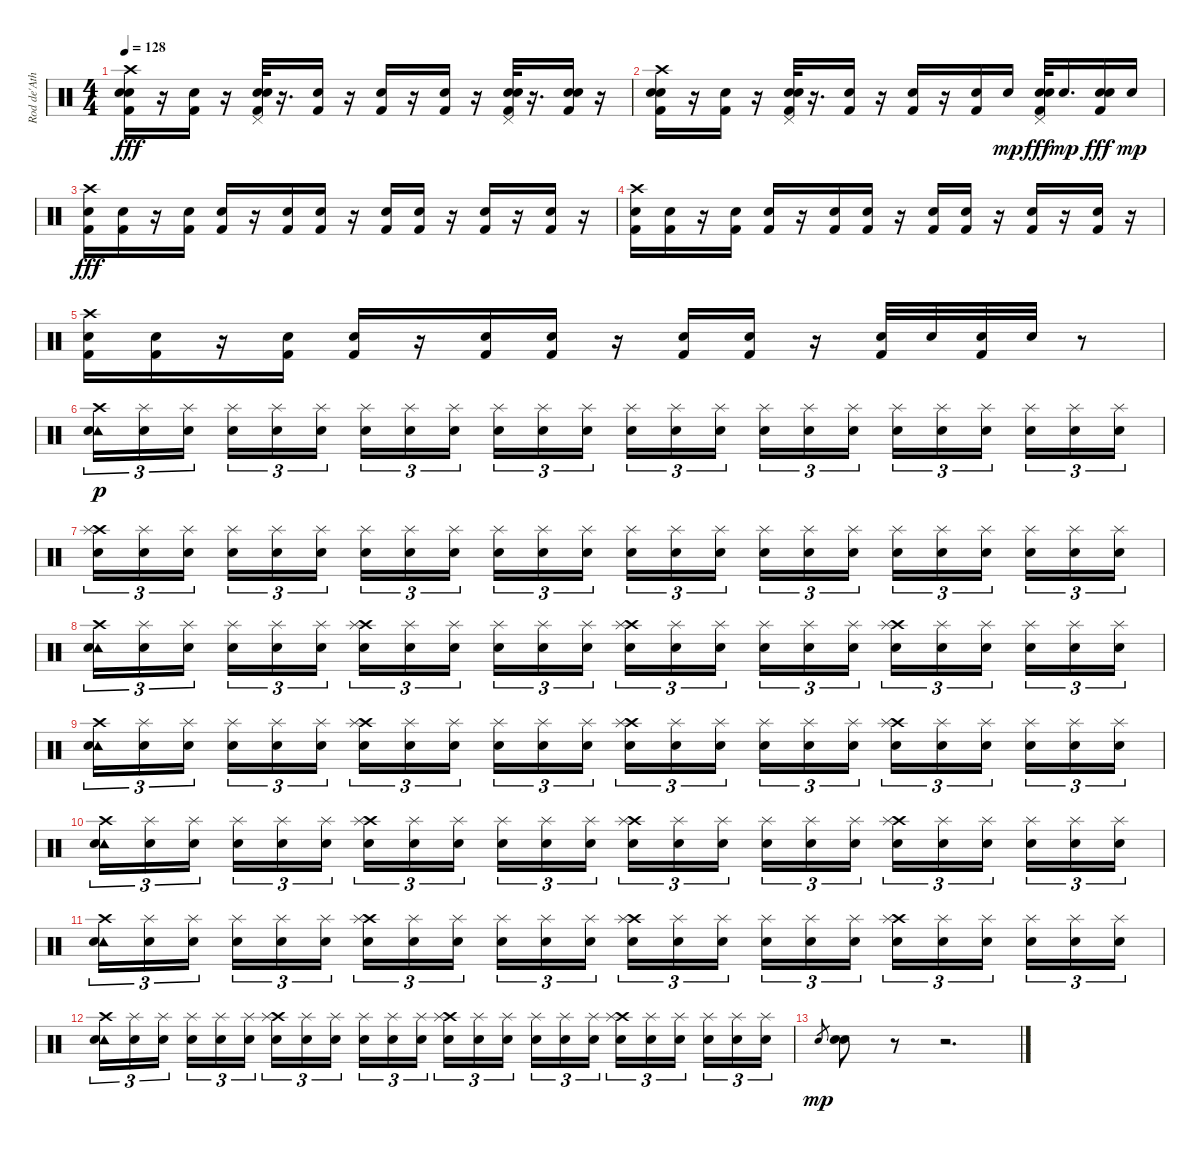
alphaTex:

\track ("Rod de'Ath" "Rod de'Ath") {instrument percussion}
\staff {score}
\articulation defaults
\ts (4 4)
\tempo 128
\clef neutral
\ks c
("Crash high (hit)" "Snare (hit) 2" "Snare (hit) 2" "Kick (hit) 2").16{dy fff} r.16 ("Snare (hit) 2" "Kick (hit) 2").16 r.16 ("Pedal Hi-Hat (hit)" "Electric Snare (hit)" "Electric Snare (hit)" "Kick (hit) 2").32 r.16{d} ("Snare (hit) 2" "Kick (hit) 2").16 r.16 ("Snare (hit) 2" "Kick (hit) 2").16 r.16 ("Snare (hit) 2" "Kick (hit) 2").16 r.16 ("Pedal Hi-Hat (hit)" "Electric Snare (hit)" "Electric Snare (hit)" "Kick (hit) 2").32 r.16{d} ("Snare (hit) 2" "Snare (hit) 2" "Kick (hit) 2").16 r.16 |
("Crash high (hit)" "Snare (hit) 2" "Snare (hit) 2" "Kick (hit) 2").16 r.16 ("Snare (hit) 2" "Kick (hit) 2").16 r.16 ("Pedal Hi-Hat (hit)" "Electric Snare (hit)" "Electric Snare (hit)" "Kick (hit) 2").32 r.16{d} ("Snare (hit) 2" "Kick (hit) 2").16 r.16 ("Snare (hit) 2" "Kick (hit) 2").16 r.16 ("Snare (hit) 2" "Kick (hit) 2").16 "Electric Snare (hit)".16{dy mp} ("Pedal Hi-Hat (hit)" "Electric Snare (hit)" "Electric Snare (hit)" "Kick (hit) 2").32{dy fff} "Electric Snare (hit)".16{d dy mp} ("Snare (hit) 2" "Snare (hit) 2" "Kick (hit) 2").16{dy fff} "Electric Snare (hit)".16{dy mp} |
("Crash high (hit)" "Snare (hit) 2" "Kick (hit) 2").16{dy fff} ("Electric Snare (hit)" "Kick (hit) 2").16 r.16 ("Electric Snare (hit)" "Kick (hit) 2").16 ("Electric Snare (hit)" "Kick (hit) 2").16 r.16 ("Electric Snare (hit)" "Kick (hit) 2").16 ("Electric Snare (hit)" "Kick (hit) 2").16 r.16 ("Electric Snare (hit)" "Kick (hit) 2").16 ("Snare (hit) 2" "Kick (hit) 2").16 r.16 ("Snare (hit) 2" "Kick (hit) 2").16 r.16 ("Snare (hit) 2" "Kick (hit) 2").16 r.16 |
("Crash high (hit)" "Snare (hit) 2" "Kick (hit) 2").16 ("Electric Snare (hit)" "Kick (hit) 2").16 r.16 ("Electric Snare (hit)" "Kick (hit) 2").16 ("Electric Snare (hit)" "Kick (hit) 2").16 r.16 ("Electric Snare (hit)" "Kick (hit) 2").16 ("Electric Snare (hit)" "Kick (hit) 2").16 r.16 ("Electric Snare (hit)" "Kick (hit) 2").16 ("Snare (hit) 2" "Kick (hit) 2").16 r.16 ("Snare (hit) 2" "Kick (hit) 2").16 r.16 ("Snare (hit) 2" "Kick (hit) 2").16 r.16 |
("Crash high (hit)" "Snare (hit) 2" "Kick (hit) 2").16 ("Electric Snare (hit)" "Kick (hit) 2").16 r.16 ("Electric Snare (hit)" "Kick (hit) 2").16 ("Electric Snare (hit)" "Kick (hit) 2").16 r.16 ("Electric Snare (hit)" "Kick (hit) 2").16 ("Electric Snare (hit)" "Kick (hit) 2").16 r.16 ("Electric Snare (hit)" "Kick (hit) 2").16 ("Snare (hit) 2" "Kick (hit) 2").16 r.16 ("Electric Snare (hit)" "Kick (hit) 2").32 "Electric Snare (hit)".32 ("Snare (hit) 2" "Kick (hit) 2").32 "Snare (hit) 2".32 r.8 |
("Crash high (hit)" "Tambourine (hit)" "Electric Snare (hit)").16{tu (3 2) dy p} ("Splash (hit)" "Electric Snare (hit)").16{tu (3 2)} ("Splash (hit)" "Electric Snare (hit)").16{tu (3 2)} ("Splash (hit)" "Electric Snare (hit)").16{tu (3 2)} ("Splash (hit)" "Electric Snare (hit)").16{tu (3 2)} ("Splash (hit)" "Electric Snare (hit)").16{tu (3 2)} ("Splash (hit)" "Electric Snare (hit)").16{tu (3 2)} ("Splash (hit)" "Electric Snare (hit)").16{tu (3 2)} ("Splash (hit)" "Electric Snare (hit)").16{tu (3 2)} ("Splash (hit)" "Electric Snare (hit)").16{tu (3 2)} ("Splash (hit)" "Electric Snare (hit)").16{tu (3 2)} ("Splash (hit)" "Electric Snare (hit)").16{tu (3 2)} ("Splash (hit)" "Electric Snare (hit)").16{tu (3 2)} ("Splash (hit)" "Electric Snare (hit)").16{tu (3 2)} ("Splash (hit)" "Electric Snare (hit)").16{tu (3 2)} ("Splash (hit)" "Electric Snare (hit)").16{tu (3 2)} ("Splash (hit)" "Electric Snare (hit)").16{tu (3 2)} ("Splash (hit)" "Electric Snare (hit)").16{tu (3 2)} ("Splash (hit)" "Electric Snare (hit)").16{tu (3 2)} ("Splash (hit)" "Electric Snare (hit)").16{tu (3 2)} ("Splash (hit)" "Electric Snare (hit)").16{tu (3 2)} ("Splash (hit)" "Electric Snare (hit)").16{tu (3 2)} ("Splash (hit)" "Electric Snare (hit)").16{tu (3 2)} ("Splash (hit)" "Electric Snare (hit)").16{tu (3 2)} |
("Crash high (hit)" "Splash (hit)" "Electric Snare (hit)").16{tu (3 2)} ("Splash (hit)" "Electric Snare (hit)").16{tu (3 2)} ("Splash (hit)" "Electric Snare (hit)").16{tu (3 2)} ("Splash (hit)" "Electric Snare (hit)").16{tu (3 2)} ("Splash (hit)" "Electric Snare (hit)").16{tu (3 2)} ("Splash (hit)" "Electric Snare (hit)").16{tu (3 2)} ("Splash (hit)" "Electric Snare (hit)").16{tu (3 2)} ("Splash (hit)" "Electric Snare (hit)").16{tu (3 2)} ("Splash (hit)" "Electric Snare (hit)").16{tu (3 2)} ("Splash (hit)" "Electric Snare (hit)").16{tu (3 2)} ("Splash (hit)" "Electric Snare (hit)").16{tu (3 2)} ("Splash (hit)" "Electric Snare (hit)").16{tu (3 2)} ("Splash (hit)" "Electric Snare (hit)").16{tu (3 2)} ("Splash (hit)" "Electric Snare (hit)").16{tu (3 2)} ("Splash (hit)" "Electric Snare (hit)").16{tu (3 2)} ("Splash (hit)" "Electric Snare (hit)").16{tu (3 2)} ("Splash (hit)" "Electric Snare (hit)").16{tu (3 2)} ("Splash (hit)" "Electric Snare (hit)").16{tu (3 2)} ("Splash (hit)" "Electric Snare (hit)").16{tu (3 2)} ("Splash (hit)" "Electric Snare (hit)").16{tu (3 2)} ("Splash (hit)" "Electric Snare (hit)").16{tu (3 2)} ("Splash (hit)" "Electric Snare (hit)").16{tu (3 2)} ("Splash (hit)" "Electric Snare (hit)").16{tu (3 2)} ("Splash (hit)" "Electric Snare (hit)").16{tu (3 2)} |
("Crash high (hit)" "Tambourine (hit)" "Electric Snare (hit)").16{tu (3 2)} ("Splash (hit)" "Electric Snare (hit)").16{tu (3 2)} ("Splash (hit)" "Electric Snare (hit)").16{tu (3 2)} ("Splash (hit)" "Electric Snare (hit)").16{tu (3 2)} ("Splash (hit)" "Electric Snare (hit)").16{tu (3 2)} ("Splash (hit)" "Electric Snare (hit)").16{tu (3 2)} ("Crash high (hit)" "Splash (hit)" "Electric Snare (hit)").16{tu (3 2)} ("Splash (hit)" "Electric Snare (hit)").16{tu (3 2)} ("Splash (hit)" "Electric Snare (hit)").16{tu (3 2)} ("Splash (hit)" "Electric Snare (hit)").16{tu (3 2)} ("Splash (hit)" "Electric Snare (hit)").16{tu (3 2)} ("Splash (hit)" "Electric Snare (hit)").16{tu (3 2)} ("Crash high (hit)" "Splash (hit)" "Electric Snare (hit)").16{tu (3 2)} ("Splash (hit)" "Electric Snare (hit)").16{tu (3 2)} ("Splash (hit)" "Electric Snare (hit)").16{tu (3 2)} ("Splash (hit)" "Electric Snare (hit)").16{tu (3 2)} ("Splash (hit)" "Electric Snare (hit)").16{tu (3 2)} ("Splash (hit)" "Electric Snare (hit)").16{tu (3 2)} ("Crash high (hit)" "Splash (hit)" "Electric Snare (hit)").16{tu (3 2)} ("Splash (hit)" "Electric Snare (hit)").16{tu (3 2)} ("Splash (hit)" "Electric Snare (hit)").16{tu (3 2)} ("Splash (hit)" "Electric Snare (hit)").16{tu (3 2)} ("Splash (hit)" "Electric Snare (hit)").16{tu (3 2)} ("Splash (hit)" "Electric Snare (hit)").16{tu (3 2)} |
("Crash high (hit)" "Tambourine (hit)" "Electric Snare (hit)").16{tu (3 2)} ("Splash (hit)" "Electric Snare (hit)").16{tu (3 2)} ("Splash (hit)" "Electric Snare (hit)").16{tu (3 2)} ("Splash (hit)" "Electric Snare (hit)").16{tu (3 2)} ("Splash (hit)" "Electric Snare (hit)").16{tu (3 2)} ("Splash (hit)" "Electric Snare (hit)").16{tu (3 2)} ("Crash high (hit)" "Splash (hit)" "Electric Snare (hit)").16{tu (3 2)} ("Splash (hit)" "Electric Snare (hit)").16{tu (3 2)} ("Splash (hit)" "Electric Snare (hit)").16{tu (3 2)} ("Splash (hit)" "Electric Snare (hit)").16{tu (3 2)} ("Splash (hit)" "Electric Snare (hit)").16{tu (3 2)} ("Splash (hit)" "Electric Snare (hit)").16{tu (3 2)} ("Crash high (hit)" "Splash (hit)" "Electric Snare (hit)").16{tu (3 2)} ("Splash (hit)" "Electric Snare (hit)").16{tu (3 2)} ("Splash (hit)" "Electric Snare (hit)").16{tu (3 2)} ("Splash (hit)" "Electric Snare (hit)").16{tu (3 2)} ("Splash (hit)" "Electric Snare (hit)").16{tu (3 2)} ("Splash (hit)" "Electric Snare (hit)").16{tu (3 2)} ("Crash high (hit)" "Splash (hit)" "Electric Snare (hit)").16{tu (3 2)} ("Splash (hit)" "Electric Snare (hit)").16{tu (3 2)} ("Splash (hit)" "Electric Snare (hit)").16{tu (3 2)} ("Splash (hit)" "Electric Snare (hit)").16{tu (3 2)} ("Splash (hit)" "Electric Snare (hit)").16{tu (3 2)} ("Splash (hit)" "Electric Snare (hit)").16{tu (3 2)} |
("Crash high (hit)" "Tambourine (hit)" "Electric Snare (hit)").16{tu (3 2)} ("Splash (hit)" "Electric Snare (hit)").16{tu (3 2)} ("Splash (hit)" "Electric Snare (hit)").16{tu (3 2)} ("Splash (hit)" "Electric Snare (hit)").16{tu (3 2)} ("Splash (hit)" "Electric Snare (hit)").16{tu (3 2)} ("Splash (hit)" "Electric Snare (hit)").16{tu (3 2)} ("Crash high (hit)" "Splash (hit)" "Electric Snare (hit)").16{tu (3 2)} ("Splash (hit)" "Electric Snare (hit)").16{tu (3 2)} ("Splash (hit)" "Electric Snare (hit)").16{tu (3 2)} ("Splash (hit)" "Electric Snare (hit)").16{tu (3 2)} ("Splash (hit)" "Electric Snare (hit)").16{tu (3 2)} ("Splash (hit)" "Electric Snare (hit)").16{tu (3 2)} ("Crash high (hit)" "Splash (hit)" "Electric Snare (hit)").16{tu (3 2)} ("Splash (hit)" "Electric Snare (hit)").16{tu (3 2)} ("Splash (hit)" "Electric Snare (hit)").16{tu (3 2)} ("Splash (hit)" "Electric Snare (hit)").16{tu (3 2)} ("Splash (hit)" "Electric Snare (hit)").16{tu (3 2)} ("Splash (hit)" "Electric Snare (hit)").16{tu (3 2)} ("Crash high (hit)" "Splash (hit)" "Electric Snare (hit)").16{tu (3 2)} ("Splash (hit)" "Electric Snare (hit)").16{tu (3 2)} ("Splash (hit)" "Electric Snare (hit)").16{tu (3 2)} ("Splash (hit)" "Electric Snare (hit)").16{tu (3 2)} ("Splash (hit)" "Electric Snare (hit)").16{tu (3 2)} ("Splash (hit)" "Electric Snare (hit)").16{tu (3 2)} |
("Crash high (hit)" "Tambourine (hit)" "Electric Snare (hit)").16{tu (3 2)} ("Splash (hit)" "Electric Snare (hit)").16{tu (3 2)} ("Splash (hit)" "Electric Snare (hit)").16{tu (3 2)} ("Splash (hit)" "Electric Snare (hit)").16{tu (3 2)} ("Splash (hit)" "Electric Snare (hit)").16{tu (3 2)} ("Splash (hit)" "Electric Snare (hit)").16{tu (3 2)} ("Crash high (hit)" "Splash (hit)" "Electric Snare (hit)").16{tu (3 2)} ("Splash (hit)" "Electric Snare (hit)").16{tu (3 2)} ("Splash (hit)" "Electric Snare (hit)").16{tu (3 2)} ("Splash (hit)" "Electric Snare (hit)").16{tu (3 2)} ("Splash (hit)" "Electric Snare (hit)").16{tu (3 2)} ("Splash (hit)" "Electric Snare (hit)").16{tu (3 2)} ("Crash high (hit)" "Splash (hit)" "Electric Snare (hit)").16{tu (3 2)} ("Splash (hit)" "Electric Snare (hit)").16{tu (3 2)} ("Splash (hit)" "Electric Snare (hit)").16{tu (3 2)} ("Splash (hit)" "Electric Snare (hit)").16{tu (3 2)} ("Splash (hit)" "Electric Snare (hit)").16{tu (3 2)} ("Splash (hit)" "Electric Snare (hit)").16{tu (3 2)} ("Crash high (hit)" "Splash (hit)" "Electric Snare (hit)").16{tu (3 2)} ("Splash (hit)" "Electric Snare (hit)").16{tu (3 2)} ("Splash (hit)" "Electric Snare (hit)").16{tu (3 2)} ("Splash (hit)" "Electric Snare (hit)").16{tu (3 2)} ("Splash (hit)" "Electric Snare (hit)").16{tu (3 2)} ("Splash (hit)" "Electric Snare (hit)").16{tu (3 2)} |
("Crash high (hit)" "Tambourine (hit)" "Electric Snare (hit)").16{tu (3 2)} ("Splash (hit)" "Electric Snare (hit)").16{tu (3 2)} ("Splash (hit)" "Electric Snare (hit)").16{tu (3 2)} ("Splash (hit)" "Electric Snare (hit)").16{tu (3 2)} ("Splash (hit)" "Electric Snare (hit)").16{tu (3 2)} ("Splash (hit)" "Electric Snare (hit)").16{tu (3 2)} ("Crash high (hit)" "Splash (hit)" "Electric Snare (hit)").16{tu (3 2)} ("Splash (hit)" "Electric Snare (hit)").16{tu (3 2)} ("Splash (hit)" "Electric Snare (hit)").16{tu (3 2)} ("Splash (hit)" "Electric Snare (hit)").16{tu (3 2)} ("Splash (hit)" "Electric Snare (hit)").16{tu (3 2)} ("Splash (hit)" "Electric Snare (hit)").16{tu (3 2)} ("Crash high (hit)" "Splash (hit)" "Electric Snare (hit)").16{tu (3 2)} ("Splash (hit)" "Electric Snare (hit)").16{tu (3 2)} ("Splash (hit)" "Electric Snare (hit)").16{tu (3 2)} ("Splash (hit)" "Electric Snare (hit)").16{tu (3 2)} ("Splash (hit)" "Electric Snare (hit)").16{tu (3 2)} ("Splash (hit)" "Electric Snare (hit)").16{tu (3 2)} ("Crash high (hit)" "Splash (hit)" "Electric Snare (hit)").16{tu (3 2)} ("Splash (hit)" "Electric Snare (hit)").16{tu (3 2)} ("Splash (hit)" "Electric Snare (hit)").16{tu (3 2)} ("Splash (hit)" "Electric Snare (hit)").16{tu (3 2)} ("Splash (hit)" "Electric Snare (hit)").16{tu (3 2)} ("Splash (hit)" "Electric Snare (hit)").16{tu (3 2)} |
"Snare (hit) 2".8{gr dy mp} ("Electric Snare (hit)" "Snare (hit) 2").8 r.8 r.2{d}
